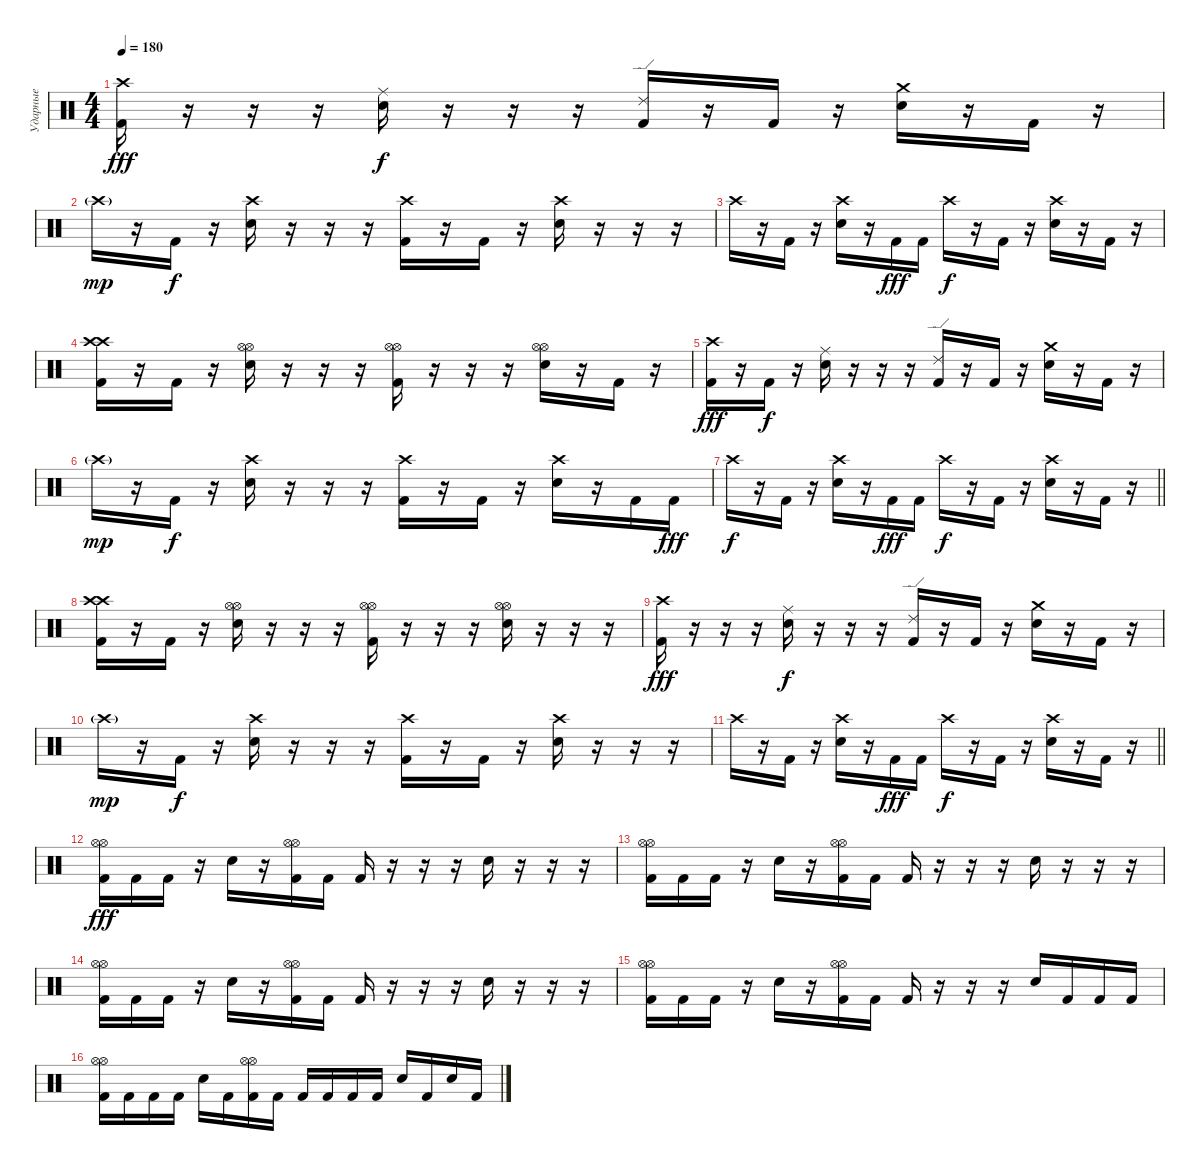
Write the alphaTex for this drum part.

\track ("Ударные" "Ударные") {instrument percussion}
\staff {score}
\articulation defaults
\ts (4 4)
\tempo 180
\clef neutral
\ks c
("Crash high (hit)" "Kick (hit) 2").16{dy fff} r.16 r.16 r.16 ("Ride (middle)" "Electric Snare (hit)").16{dy f} r.16 r.16 r.16 ("Ride (edge) 2" "Kick (hit) 2").16 r.16 "Kick (hit) 2".16 r.16 ("Crash medium (hit)" "Electric Snare (hit)").16 r.16 "Kick (hit) 2".16 r.16 |
"Crash high (hit)"{g}.16{dy mp} r.16 "Kick (hit) 2".16{dy f} r.16 ("Crash high (hit)" "Electric Snare (hit)").16 r.16 r.16 r.16 ("Crash high (hit)" "Kick (hit) 2").16 r.16 "Kick (hit) 2".16 r.16 ("Crash high (hit)" "Electric Snare (hit)").16 r.16 r.16 r.16 |
"Crash high (hit)".16 r.16 "Kick (hit) 2".16 r.16 ("Crash high (hit)" "Electric Snare (hit)").16 r.16 "Kick (hit) 2".16{dy fff} "Kick (hit) 2".16 "Crash high (hit)".16{dy f} r.16 "Kick (hit) 2".16 r.16 ("Crash high (hit)" "Electric Snare (hit)").16 r.16 "Kick (hit) 2".16 r.16 |
("Crash high (hit)" "Crash high (hit)" "Kick (hit) 2").16 r.16 "Kick (hit) 2".16 r.16 ("Hi-Hat (open)" "Hi-Hat (open)" "Electric Snare (hit)").16 r.16 r.16 r.16 ("Hi-Hat (open)" "Hi-Hat (open)" "Kick (hit) 2").16 r.16 r.16 r.16 ("Hi-Hat (open)" "Hi-Hat (open)" "Electric Snare (hit)").16 r.16 "Kick (hit) 2".16 r.16 |
("Crash high (hit)" "Kick (hit) 2").16{dy fff} r.16 "Kick (hit) 2".16{dy f} r.16 ("Ride (middle)" "Electric Snare (hit)").16 r.16 r.16 r.16 ("Ride (edge) 2" "Kick (hit) 2").16 r.16 "Kick (hit) 2".16 r.16 ("Crash medium (hit)" "Electric Snare (hit)").16 r.16 "Kick (hit) 2".16 r.16 |
"Crash high (hit)"{g}.16{dy mp} r.16 "Kick (hit) 2".16{dy f} r.16 ("Crash high (hit)" "Electric Snare (hit)").16 r.16 r.16 r.16 ("Crash high (hit)" "Kick (hit) 2").16 r.16 "Kick (hit) 2".16 r.16 ("Crash high (hit)" "Electric Snare (hit)").16 r.16 "Kick (hit) 2".16 "Kick (hit) 2".16{dy fff} |
\barLineRight lightlight "Crash high (hit)".16{dy f}
r.16 "Kick (hit) 2".16 r.16 ("Crash high (hit)" "Electric Snare (hit)").16 r.16 "Kick (hit) 2".16{dy fff} "Kick (hit) 2".16 "Crash high (hit)".16{dy f} r.16 "Kick (hit) 2".16 r.16 ("Crash high (hit)" "Electric Snare (hit)").16 r.16 "Kick (hit) 2".16 r.16 |
("Crash high (hit)" "Crash high (hit)" "Kick (hit) 2").16 r.16 "Kick (hit) 2".16 r.16 ("Hi-Hat (open)" "Hi-Hat (open)" "Electric Snare (hit)").16 r.16 r.16 r.16 ("Hi-Hat (open)" "Hi-Hat (open)" "Kick (hit) 2").16 r.16 r.16 r.16 ("Hi-Hat (open)" "Hi-Hat (open)" "Electric Snare (hit)").16 r.16 r.16 r.16 |
("Crash high (hit)" "Kick (hit) 2").16{dy fff} r.16 r.16 r.16 ("Ride (middle)" "Electric Snare (hit)").16{dy f} r.16 r.16 r.16 ("Ride (edge) 2" "Kick (hit) 2").16 r.16 "Kick (hit) 2".16 r.16 ("Crash medium (hit)" "Electric Snare (hit)").16 r.16 "Kick (hit) 2".16 r.16 |
"Crash high (hit)"{g}.16{dy mp} r.16 "Kick (hit) 2".16{dy f} r.16 ("Crash high (hit)" "Electric Snare (hit)").16 r.16 r.16 r.16 ("Crash high (hit)" "Kick (hit) 2").16 r.16 "Kick (hit) 2".16 r.16 ("Crash high (hit)" "Electric Snare (hit)").16 r.16 r.16 r.16 |
\barLineRight lightlight "Crash high (hit)".16
r.16 "Kick (hit) 2".16 r.16 ("Crash high (hit)" "Electric Snare (hit)").16 r.16 "Kick (hit) 2".16{dy fff} "Kick (hit) 2".16 "Crash high (hit)".16{dy f} r.16 "Kick (hit) 2".16 r.16 ("Crash high (hit)" "Electric Snare (hit)").16 r.16 "Kick (hit) 2".16 r.16 |
("Hi-Hat (open)" "Hi-Hat (open)" "Kick (hit) 2").16{dy fff} "Kick (hit) 2".16 "Kick (hit) 2".16 r.16 "Electric Snare (hit)".16 r.16 ("Hi-Hat (open)" "Hi-Hat (open)" "Kick (hit) 2").16 "Kick (hit) 2".16 "Kick (hit) 2".16 r.16 r.16 r.16 "Electric Snare (hit)".16 r.16 r.16 r.16 |
("Hi-Hat (open)" "Hi-Hat (open)" "Kick (hit) 2").16 "Kick (hit) 2".16 "Kick (hit) 2".16 r.16 "Electric Snare (hit)".16 r.16 ("Hi-Hat (open)" "Hi-Hat (open)" "Kick (hit) 2").16 "Kick (hit) 2".16 "Kick (hit) 2".16 r.16 r.16 r.16 "Electric Snare (hit)".16 r.16 r.16 r.16 |
("Hi-Hat (open)" "Hi-Hat (open)" "Kick (hit) 2").16 "Kick (hit) 2".16 "Kick (hit) 2".16 r.16 "Electric Snare (hit)".16 r.16 ("Hi-Hat (open)" "Hi-Hat (open)" "Kick (hit) 2").16 "Kick (hit) 2".16 "Kick (hit) 2".16 r.16 r.16 r.16 "Electric Snare (hit)".16 r.16 r.16 r.16 |
("Hi-Hat (open)" "Hi-Hat (open)" "Kick (hit) 2").16 "Kick (hit) 2".16 "Kick (hit) 2".16 r.16 "Electric Snare (hit)".16 r.16 ("Hi-Hat (open)" "Hi-Hat (open)" "Kick (hit) 2").16 "Kick (hit) 2".16 "Kick (hit) 2".16 r.16 r.16 r.16 "Electric Snare (hit)".16 "Kick (hit) 2".16 "Kick (hit) 2".16 "Kick (hit) 2".16 |
("Hi-Hat (open)" "Hi-Hat (open)" "Kick (hit) 2").16 "Kick (hit) 2".16 "Kick (hit) 2".16 "Kick (hit) 2".16 "Electric Snare (hit)".16 "Kick (hit) 2".16 ("Hi-Hat (open)" "Hi-Hat (open)" "Kick (hit) 2").16 "Kick (hit) 2".16 "Kick (hit) 2".16 "Kick (hit) 2".16 "Kick (hit) 2".16 "Kick (hit) 2".16 "Electric Snare (hit)".16 "Kick (hit) 2".16 "Electric Snare (hit)".16 "Kick (hit) 2".16
